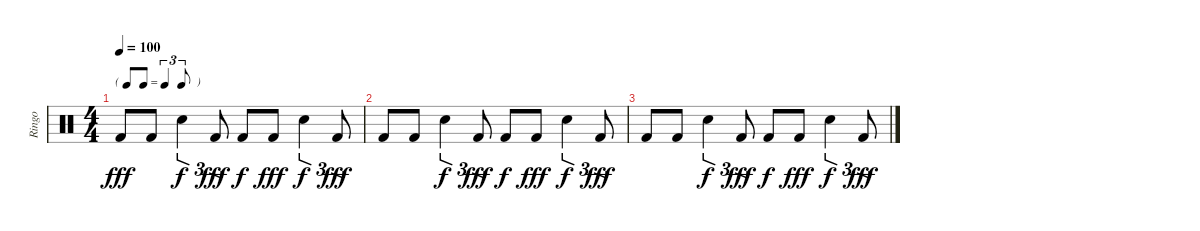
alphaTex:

\track ("Ringo" "Ringo") {instrument percussion}
\staff {score}
\articulation defaults
\ts (4 4)
\tf triplet8th
\tempo 100
\clef neutral
\ks c "Kick (hit) 2".8{dy fff} "Kick (hit) 2".8 "Snare (hit) 2".4{tu (3 2) dy f} "Kick (hit) 2".8{tu (3 2) dy fff} "Kick (hit) 2".8{dy f} "Kick (hit) 2".8{dy fff} "Snare (hit) 2".4{tu (3 2) dy f} "Kick (hit) 2".8{tu (3 2) dy fff}
|
"Kick (hit) 2".8 "Kick (hit) 2".8 "Snare (hit) 2".4{tu (3 2) dy f} "Kick (hit) 2".8{tu (3 2) dy fff} "Kick (hit) 2".8{dy f} "Kick (hit) 2".8{dy fff} "Snare (hit) 2".4{tu (3 2) dy f} "Kick (hit) 2".8{tu (3 2) dy fff} |
"Kick (hit) 2".8 "Kick (hit) 2".8 "Snare (hit) 2".4{tu (3 2) dy f} "Kick (hit) 2".8{tu (3 2) dy fff} "Kick (hit) 2".8{dy f} "Kick (hit) 2".8{dy fff} "Snare (hit) 2".4{tu (3 2) dy f} "Kick (hit) 2".8{tu (3 2) dy fff}
